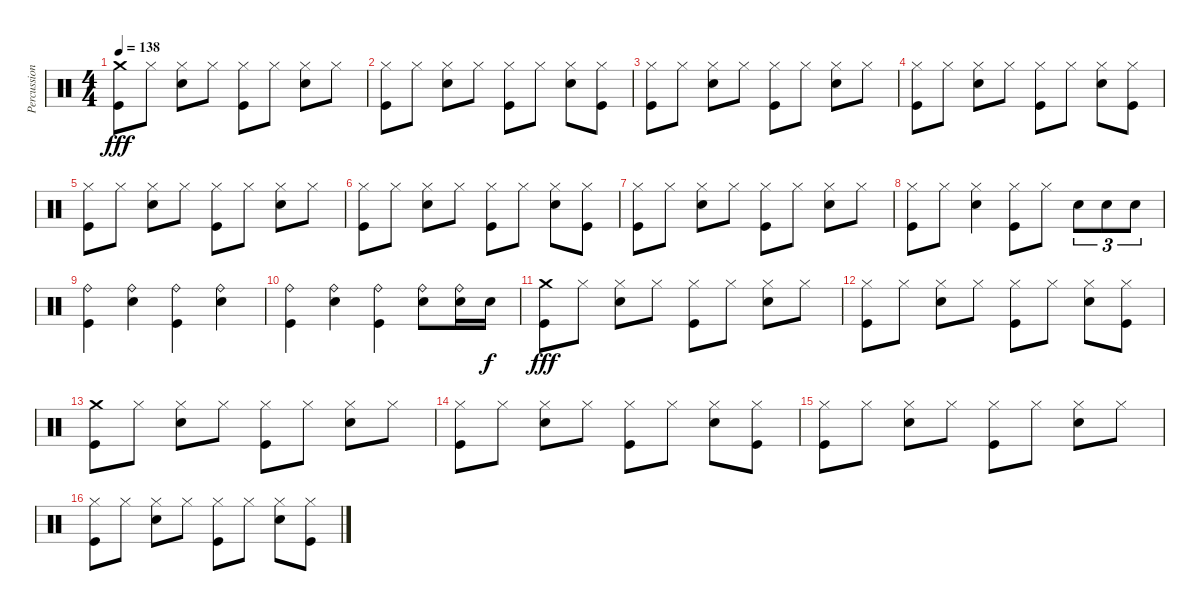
\track ("Percussions" "Percussion") {instrument percussion}
\staff {score}
\articulation defaults
\ts (4 4)
\tempo 138
\clef neutral
\ks c
("Crash medium (hit)" "Kick (hit)").8{dy fff} "Hi-Hat (closed)".8 ("Hi-Hat (closed)" "Snare (hit) 2").8 "Hi-Hat (closed)".8 ("Hi-Hat (closed)" "Kick (hit)").8 "Hi-Hat (closed)".8 ("Hi-Hat (closed)" "Snare (hit) 2").8 "Hi-Hat (closed)".8 |
("Hi-Hat (closed)" "Kick (hit)").8 "Hi-Hat (closed)".8 ("Hi-Hat (closed)" "Snare (hit) 2").8 "Hi-Hat (closed)".8 ("Hi-Hat (closed)" "Kick (hit)").8 "Hi-Hat (closed)".8 ("Hi-Hat (closed)" "Snare (hit) 2").8 ("Hi-Hat (closed)" "Kick (hit)").8 |
("Hi-Hat (closed)" "Kick (hit)").8 "Hi-Hat (closed)".8 ("Hi-Hat (closed)" "Snare (hit) 2").8 "Hi-Hat (closed)".8 ("Hi-Hat (closed)" "Kick (hit)").8 "Hi-Hat (closed)".8 ("Hi-Hat (closed)" "Snare (hit) 2").8 "Hi-Hat (closed)".8 |
("Hi-Hat (closed)" "Kick (hit)").8 "Hi-Hat (closed)".8 ("Hi-Hat (closed)" "Snare (hit) 2").8 "Hi-Hat (closed)".8 ("Hi-Hat (closed)" "Kick (hit)").8 "Hi-Hat (closed)".8 ("Hi-Hat (closed)" "Snare (hit) 2").8 ("Hi-Hat (closed)" "Kick (hit)").8 |
("Hi-Hat (closed)" "Kick (hit)").8 "Hi-Hat (closed)".8 ("Hi-Hat (closed)" "Snare (hit) 2").8 "Hi-Hat (closed)".8 ("Hi-Hat (closed)" "Kick (hit)").8 "Hi-Hat (closed)".8 ("Hi-Hat (closed)" "Snare (hit) 2").8 "Hi-Hat (closed)".8 |
("Hi-Hat (closed)" "Kick (hit)").8 "Hi-Hat (closed)".8 ("Hi-Hat (closed)" "Snare (hit) 2").8 "Hi-Hat (closed)".8 ("Hi-Hat (closed)" "Kick (hit)").8 "Hi-Hat (closed)".8 ("Hi-Hat (closed)" "Snare (hit) 2").8 ("Hi-Hat (closed)" "Kick (hit)").8 |
("Hi-Hat (closed)" "Kick (hit)").8 "Hi-Hat (closed)".8 ("Hi-Hat (closed)" "Snare (hit) 2").8 "Hi-Hat (closed)".8 ("Hi-Hat (closed)" "Kick (hit)").8 "Hi-Hat (closed)".8 ("Hi-Hat (closed)" "Snare (hit) 2").8 "Hi-Hat (closed)".8 |
("Hi-Hat (closed)" "Kick (hit)").8 "Hi-Hat (closed)".8 ("Hi-Hat (closed)" "Snare (hit) 2").4 ("Hi-Hat (closed)" "Kick (hit)").8 "Hi-Hat (closed)".8 "Snare (hit) 2".8{tu (3 2)} "Snare (hit) 2".8{tu (3 2)} "Snare (hit) 2".8{tu (3 2)} |
("Ride (bell)" "Kick (hit)").4 ("Ride (bell)" "Snare (hit) 2").4 ("Ride (bell)" "Kick (hit)").4 ("Ride (bell)" "Snare (hit) 2").4 |
("Ride (bell)" "Kick (hit)").4 ("Ride (bell)" "Snare (hit) 2").4 ("Ride (bell)" "Kick (hit)").4 ("Ride (bell)" "Snare (hit) 2").8 ("Ride (bell)" "Snare (hit) 2").16 "Snare (hit) 2".16{dy f} |
("Crash medium (hit)" "Kick (hit)").8{dy fff} "Hi-Hat (closed)".8 ("Hi-Hat (closed)" "Snare (hit) 2").8 "Hi-Hat (closed)".8 ("Hi-Hat (closed)" "Kick (hit)").8 "Hi-Hat (closed)".8 ("Hi-Hat (closed)" "Snare (hit) 2").8 "Hi-Hat (closed)".8 |
("Hi-Hat (closed)" "Kick (hit)").8 "Hi-Hat (closed)".8 ("Hi-Hat (closed)" "Snare (hit) 2").8 "Hi-Hat (closed)".8 ("Hi-Hat (closed)" "Kick (hit)").8 "Hi-Hat (closed)".8 ("Hi-Hat (closed)" "Snare (hit) 2").8 ("Hi-Hat (closed)" "Kick (hit)").8 |
("Crash medium (hit)" "Kick (hit)").8 "Hi-Hat (closed)".8 ("Hi-Hat (closed)" "Snare (hit) 2").8 "Hi-Hat (closed)".8 ("Hi-Hat (closed)" "Kick (hit)").8 "Hi-Hat (closed)".8 ("Hi-Hat (closed)" "Snare (hit) 2").8 "Hi-Hat (closed)".8 |
("Hi-Hat (closed)" "Kick (hit)").8 "Hi-Hat (closed)".8 ("Hi-Hat (closed)" "Snare (hit) 2").8 "Hi-Hat (closed)".8 ("Hi-Hat (closed)" "Kick (hit)").8 "Hi-Hat (closed)".8 ("Hi-Hat (closed)" "Snare (hit) 2").8 ("Hi-Hat (closed)" "Kick (hit)").8 |
("Hi-Hat (closed)" "Kick (hit)").8 "Hi-Hat (closed)".8 ("Hi-Hat (closed)" "Snare (hit) 2").8 "Hi-Hat (closed)".8 ("Hi-Hat (closed)" "Kick (hit)").8 "Hi-Hat (closed)".8 ("Hi-Hat (closed)" "Snare (hit) 2").8 "Hi-Hat (closed)".8 |
("Hi-Hat (closed)" "Kick (hit)").8 "Hi-Hat (closed)".8 ("Hi-Hat (closed)" "Snare (hit) 2").8 "Hi-Hat (closed)".8 ("Hi-Hat (closed)" "Kick (hit)").8 "Hi-Hat (closed)".8 ("Hi-Hat (closed)" "Snare (hit) 2").8 ("Hi-Hat (closed)" "Kick (hit)").8
